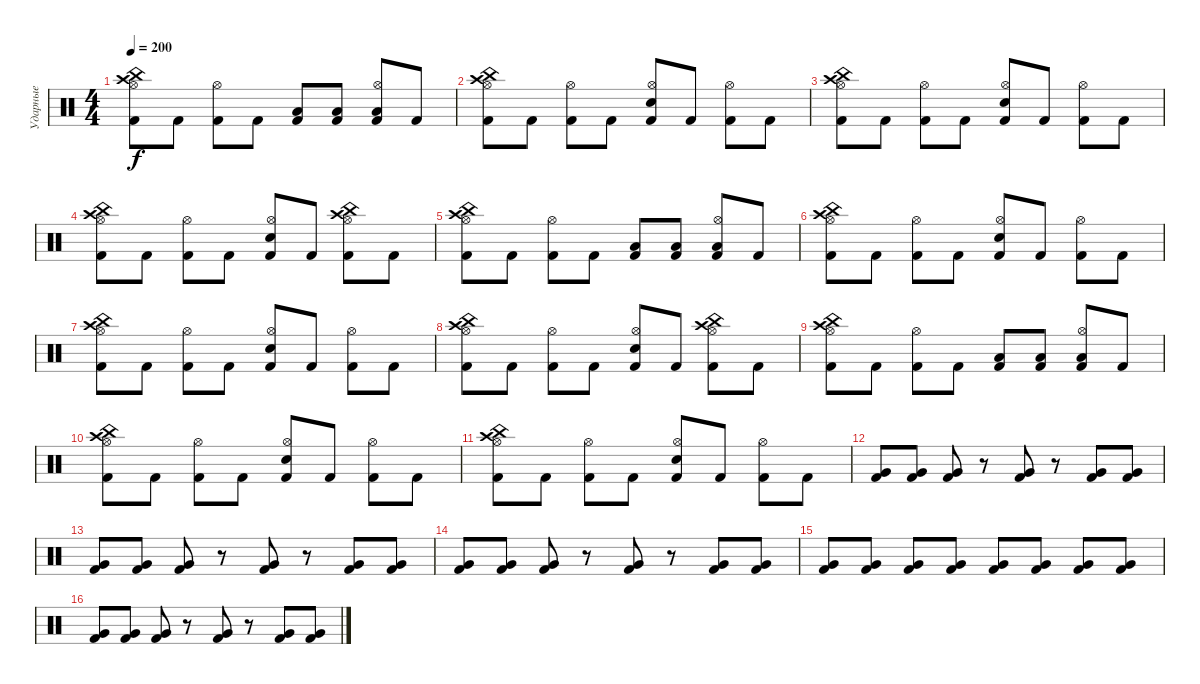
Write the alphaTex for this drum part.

\track ("Ударные" "Ударные") {instrument percussion}
\staff {score}
\articulation defaults
\ts (4 4)
\tempo 200
\clef neutral
\ks c
("Kick (hit) 2" "Hi-Hat (open)" "China (hit)" "Crash high (hit)").8{dy f} "Kick (hit) 2".8 ("Kick (hit) 2" "Hi-Hat (open)").8 "Kick (hit) 2".8 ("Kick (hit) 2" "Low Floor Tom (hit)").8 ("Kick (hit) 2" "Low Floor Tom (hit)").8 ("Kick (hit) 2" "Low Floor Tom (hit)" "Hi-Hat (open)").8 "Kick (hit) 2".8 |
("Kick (hit) 2" "Hi-Hat (open)" "China (hit)" "Crash high (hit)").8 "Kick (hit) 2".8 ("Kick (hit) 2" "Hi-Hat (open)").8 "Kick (hit) 2".8 ("Kick (hit) 2" "Electric Snare (hit)" "Hi-Hat (open)").8 "Kick (hit) 2".8 ("Kick (hit) 2" "Hi-Hat (open)").8 "Kick (hit) 2".8 |
("Kick (hit) 2" "Hi-Hat (open)" "Crash high (hit)" "China (hit)").8 "Kick (hit) 2".8 ("Kick (hit) 2" "Hi-Hat (open)").8 "Kick (hit) 2".8 ("Kick (hit) 2" "Electric Snare (hit)" "Hi-Hat (open)").8 "Kick (hit) 2".8 ("Kick (hit) 2" "Hi-Hat (open)").8 "Kick (hit) 2".8 |
("Kick (hit) 2" "Hi-Hat (open)" "Crash high (hit)" "China (hit)").8 "Kick (hit) 2".8 ("Kick (hit) 2" "Hi-Hat (open)").8 "Kick (hit) 2".8 ("Kick (hit) 2" "Electric Snare (hit)" "Hi-Hat (open)").8 "Kick (hit) 2".8 ("Kick (hit) 2" "Hi-Hat (open)" "Crash high (hit)" "China (hit)").8 "Kick (hit) 2".8 |
("Kick (hit) 2" "Hi-Hat (open)" "China (hit)" "Crash high (hit)").8 "Kick (hit) 2".8 ("Kick (hit) 2" "Hi-Hat (open)").8 "Kick (hit) 2".8 ("Kick (hit) 2" "Low Floor Tom (hit)").8 ("Kick (hit) 2" "Low Floor Tom (hit)").8 ("Kick (hit) 2" "Low Floor Tom (hit)" "Hi-Hat (open)").8 "Kick (hit) 2".8 |
("Kick (hit) 2" "Hi-Hat (open)" "China (hit)" "Crash high (hit)").8 "Kick (hit) 2".8 ("Kick (hit) 2" "Hi-Hat (open)").8 "Kick (hit) 2".8 ("Kick (hit) 2" "Electric Snare (hit)" "Hi-Hat (open)").8 "Kick (hit) 2".8 ("Kick (hit) 2" "Hi-Hat (open)").8 "Kick (hit) 2".8 |
("Kick (hit) 2" "Hi-Hat (open)" "Crash high (hit)" "China (hit)").8 "Kick (hit) 2".8 ("Kick (hit) 2" "Hi-Hat (open)").8 "Kick (hit) 2".8 ("Kick (hit) 2" "Electric Snare (hit)" "Hi-Hat (open)").8 "Kick (hit) 2".8 ("Kick (hit) 2" "Hi-Hat (open)").8 "Kick (hit) 2".8 |
("Kick (hit) 2" "Hi-Hat (open)" "Crash high (hit)" "China (hit)").8 "Kick (hit) 2".8 ("Kick (hit) 2" "Hi-Hat (open)").8 "Kick (hit) 2".8 ("Kick (hit) 2" "Electric Snare (hit)" "Hi-Hat (open)").8 "Kick (hit) 2".8 ("Kick (hit) 2" "Hi-Hat (open)" "Crash high (hit)" "China (hit)").8 "Kick (hit) 2".8 |
("Kick (hit) 2" "Hi-Hat (open)" "China (hit)" "Crash high (hit)").8 "Kick (hit) 2".8 ("Kick (hit) 2" "Hi-Hat (open)").8 "Kick (hit) 2".8 ("Kick (hit) 2" "Low Floor Tom (hit)").8 ("Kick (hit) 2" "Low Floor Tom (hit)").8 ("Kick (hit) 2" "Low Floor Tom (hit)" "Hi-Hat (open)").8 "Kick (hit) 2".8 |
("Kick (hit) 2" "Hi-Hat (open)" "China (hit)" "Crash high (hit)").8 "Kick (hit) 2".8 ("Kick (hit) 2" "Hi-Hat (open)").8 "Kick (hit) 2".8 ("Kick (hit) 2" "Electric Snare (hit)" "Hi-Hat (open)").8 "Kick (hit) 2".8 ("Kick (hit) 2" "Hi-Hat (open)").8 "Kick (hit) 2".8 |
("Kick (hit) 2" "Hi-Hat (open)" "China (hit)" "Crash high (hit)").8 "Kick (hit) 2".8 ("Kick (hit) 2" "Hi-Hat (open)").8 "Kick (hit) 2".8 ("Kick (hit) 2" "Electric Snare (hit)" "Hi-Hat (open)").8 "Kick (hit) 2".8 ("Kick (hit) 2" "Hi-Hat (open)").8 "Kick (hit) 2".8 |
("Kick (hit) 2" "Very Low Tom (hit)").8 ("Kick (hit) 2" "Very Low Tom (hit)").8 ("Kick (hit) 2" "Very Low Tom (hit)").8 r.8 ("Kick (hit) 2" "Very Low Tom (hit)").8 r.8 ("Kick (hit) 2" "Very Low Tom (hit)").8 ("Kick (hit) 2" "Very Low Tom (hit)").8 |
("Kick (hit) 2" "Very Low Tom (hit)").8 ("Kick (hit) 2" "Very Low Tom (hit)").8 ("Kick (hit) 2" "Very Low Tom (hit)").8 r.8 ("Kick (hit) 2" "Very Low Tom (hit)").8 r.8 ("Kick (hit) 2" "Very Low Tom (hit)").8 ("Kick (hit) 2" "Very Low Tom (hit)").8 |
("Kick (hit) 2" "Very Low Tom (hit)").8 ("Kick (hit) 2" "Very Low Tom (hit)").8 ("Kick (hit) 2" "Very Low Tom (hit)").8 r.8 ("Kick (hit) 2" "Very Low Tom (hit)").8 r.8 ("Kick (hit) 2" "Very Low Tom (hit)").8 ("Kick (hit) 2" "Very Low Tom (hit)").8 |
("Kick (hit) 2" "Very Low Tom (hit)").8 ("Kick (hit) 2" "Very Low Tom (hit)").8 ("Kick (hit) 2" "Very Low Tom (hit)").8 ("Kick (hit) 2" "Very Low Tom (hit)").8 ("Kick (hit) 2" "Very Low Tom (hit)").8 ("Kick (hit) 2" "Very Low Tom (hit)").8 ("Kick (hit) 2" "Very Low Tom (hit)").8 ("Kick (hit) 2" "Very Low Tom (hit)").8 |
("Kick (hit) 2" "Very Low Tom (hit)").8 ("Kick (hit) 2" "Very Low Tom (hit)").8 ("Kick (hit) 2" "Very Low Tom (hit)").8 r.8 ("Kick (hit) 2" "Very Low Tom (hit)").8 r.8 ("Kick (hit) 2" "Very Low Tom (hit)").8 ("Kick (hit) 2" "Very Low Tom (hit)").8
